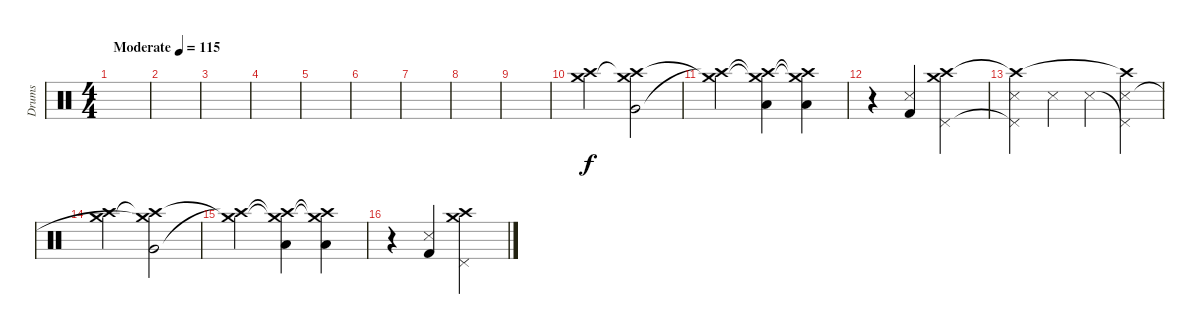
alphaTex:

\track ("Drums" "Drums") {instrument percussion}
\staff {score}
\articulation defaults
\ts (4 4)
\tempo (115 "Moderate")
\clef neutral
\ks c
|
|
|
|
|
|
|
|
|
("Crash high (hit)" "Crash medium (hit)").2 ("Very Low Tom (hit)" "Crash high (hit)"{t} "Crash medium (hit)").2 |
("Crash high (hit)"{t} "Crash medium (hit)"{t}).2 ("Crash high (hit)"{t} "Crash medium (hit)"{t} "Low Floor Tom (hit)").4 ("Crash high (hit)"{t} "Crash medium (hit)"{t} "Low Floor Tom (hit)").4 |
r.4 ("Kick (hit) 2" "Snare (side stick) 3").4 ("Pedal Hi-Hat (hit)" "Crash high (hit)" "Crash medium (hit)").2 |
("Pedal Hi-Hat (hit)"{t} "Crash high (hit)"{t} "Snare (side stick) 3").4 "Snare (side stick) 3".4 "Snare (side stick) 3".4 ("Pedal Hi-Hat (hit)"{t} "Crash high (hit)"{t} "Snare (side stick) 3").4 |
("Crash high (hit)" "Crash medium (hit)").2 ("Very Low Tom (hit)" "Crash high (hit)"{t} "Crash medium (hit)"{t}).2 |
("Crash high (hit)"{t} "Crash medium (hit)"{t}).2 ("Crash high (hit)"{t} "Crash medium (hit)"{t} "Low Floor Tom (hit)").4 ("Crash high (hit)"{t} "Crash medium (hit)"{t} "Low Floor Tom (hit)").4 |
r.4 ("Kick (hit) 2" "Snare (side stick) 3").4 ("Pedal Hi-Hat (hit)" "Crash high (hit)" "Crash medium (hit)").2
